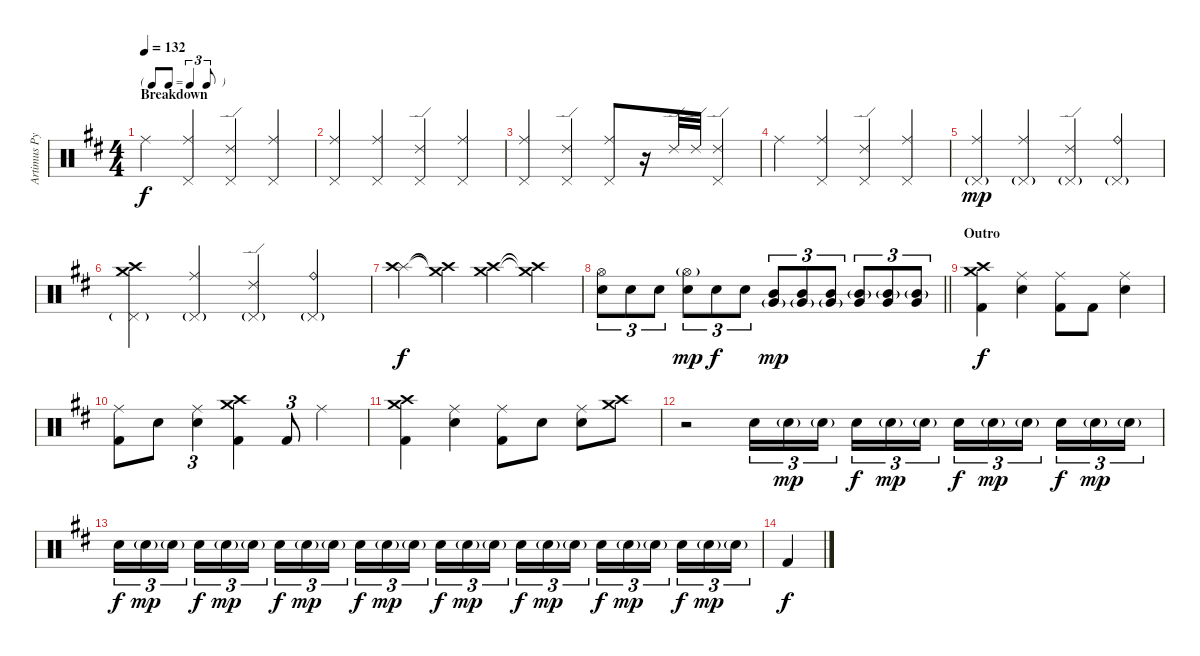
\track ("Artimus Pyle - Drums" "Artimus Py") {solo instrument percussion}
\staff {score}
\articulation defaults
\ts (4 4)
\tf triplet8th
\section ("" "Breakdown")
\tempo 132
\clef neutral
\ks d "Ride (middle)".4{dy f}
("Ride (middle)" "Pedal Hi-Hat (hit)").4 ("Ride (edge) 2" "Pedal Hi-Hat (hit)").4 ("Ride (middle)" "Pedal Hi-Hat (hit)").4 |
("Ride (middle)" "Pedal Hi-Hat (hit)").4 ("Ride (middle)" "Pedal Hi-Hat (hit)").4 ("Ride (edge) 2" "Pedal Hi-Hat (hit)").4 ("Ride (middle)" "Pedal Hi-Hat (hit)").4 |
("Ride (middle)" "Pedal Hi-Hat (hit)").4 ("Ride (edge) 2" "Pedal Hi-Hat (hit)").4 ("Ride (middle)" "Pedal Hi-Hat (hit)").8 r.16 "Ride (edge) 2".32 "Ride (edge) 2".32 ("Ride (edge) 2" "Pedal Hi-Hat (hit)").4 |
"Ride (middle)".4 ("Ride (middle)" "Pedal Hi-Hat (hit)").4 ("Ride (edge) 2" "Pedal Hi-Hat (hit)").4 ("Ride (middle)" "Pedal Hi-Hat (hit)").4 |
("Ride (middle)" "Pedal Hi-Hat (hit)"{g}).4{dy mp} ("Ride (middle)" "Pedal Hi-Hat (hit)"{g}).4 ("Ride (edge) 2" "Pedal Hi-Hat (hit)"{g}).4 ("Ride (bell)" "Pedal Hi-Hat (hit)"{g}).4 |
("Crash high (hit)" "Crash medium (hit)" "Pedal Hi-Hat (hit)"{g}).4 ("Ride (middle)" "Pedal Hi-Hat (hit)"{g}).4 ("Ride (edge) 2" "Pedal Hi-Hat (hit)"{g}).4 ("Ride (bell)" "Pedal Hi-Hat (hit)"{g}).4 |
("Splash (hit)" "Crash high (hit)").4{dy f} ("Crash medium (hit)"{t} "Crash high (hit)"{t}).4 ("Crash medium (hit)" "Crash high (hit)").4 ("Crash medium (hit)"{t} "Crash high (hit)"{t}).4 |
\barLineRight lightlight
("Snare (hit) 2" "Hi-Hat (open)").8{tu (3 2)} "Snare (hit) 2".8{tu (3 2)} "Snare (hit) 2".8{tu (3 2)} ("Snare (hit) 2" "Hi-Hat (open)"{g}).8{tu (3 2) dy mp} "Snare (hit) 2".8{tu (3 2) dy f} "Snare (hit) 2".8{tu (3 2)} ("Very Low Tom (hit)"{g} "Mid Tom (hit)").8{tu (3 2) dy mp} ("Very Low Tom (hit)"{g} "Mid Tom (hit)").8{tu (3 2)} ("Very Low Tom (hit)"{g} "Mid Tom (hit)").8{tu (3 2)} ("Mid Tom (hit)"{g} "Very Low Tom (hit)").8{tu (3 2)} ("Mid Tom (hit)"{g} "Very Low Tom (hit)").8{tu (3 2)} ("Mid Tom (hit)"{g} "Very Low Tom (hit)").8{tu (3 2)} |
\section ("" "Outro")
("Crash medium (hit)" "Crash high (hit)" "Kick (hit) 2").4{dy f} ("Ride (middle)" "Snare (hit) 2").4 ("Ride (middle)" "Kick (hit) 2").8 "Kick (hit) 2".8 ("Ride (middle)" "Snare (hit) 2").4 |
("Ride (middle)" "Kick (hit) 2").8 "Snare (hit) 2".8 ("Ride (middle)" "Snare (hit) 2").4{tu (3 2)} ("Crash high (hit)" "Crash medium (hit)" "Kick (hit) 2").4 "Kick (hit) 2".8{tu (3 2)} "Ride (middle)".4 |
("Crash medium (hit)" "Crash high (hit)" "Kick (hit) 2").4 ("Ride (middle)" "Snare (hit) 2").4 ("Ride (middle)" "Kick (hit) 2").8 "Snare (hit) 2".8 ("Ride (middle)" "Snare (hit) 2").8 ("Crash medium (hit)" "Crash high (hit)").8 |
r.2 "Snare (hit) 2".16{tu (3 2)} "Snare (hit) 2"{g}.16{tu (3 2) dy mp} "Snare (hit) 2"{g}.16{tu (3 2) beam splitsecondary} "Snare (hit) 2".16{tu (3 2) dy f} "Snare (hit) 2"{g}.16{tu (3 2) dy mp} "Snare (hit) 2"{g}.16{tu (3 2)} "Snare (hit) 2".16{tu (3 2) dy f} "Snare (hit) 2"{g}.16{tu (3 2) dy mp} "Snare (hit) 2"{g}.16{tu (3 2) beam splitsecondary} "Snare (hit) 2".16{tu (3 2) dy f} "Snare (hit) 2"{g}.16{tu (3 2) dy mp} "Snare (hit) 2"{g}.16{tu (3 2)} |
"Snare (hit) 2".16{tu (3 2) dy f} "Snare (hit) 2"{g}.16{tu (3 2) dy mp} "Snare (hit) 2"{g}.16{tu (3 2) beam splitsecondary} "Snare (hit) 2".16{tu (3 2) dy f} "Snare (hit) 2"{g}.16{tu (3 2) dy mp} "Snare (hit) 2"{g}.16{tu (3 2)} "Snare (hit) 2".16{tu (3 2) dy f} "Snare (hit) 2"{g}.16{tu (3 2) dy mp} "Snare (hit) 2"{g}.16{tu (3 2) beam splitsecondary} "Snare (hit) 2".16{tu (3 2) dy f} "Snare (hit) 2"{g}.16{tu (3 2) dy mp} "Snare (hit) 2"{g}.16{tu (3 2)} "Snare (hit) 2".16{tu (3 2) dy f} "Snare (hit) 2"{g}.16{tu (3 2) dy mp} "Snare (hit) 2"{g}.16{tu (3 2) beam splitsecondary} "Snare (hit) 2".16{tu (3 2) dy f} "Snare (hit) 2"{g}.16{tu (3 2) dy mp} "Snare (hit) 2"{g}.16{tu (3 2)} "Snare (hit) 2".16{tu (3 2) dy f} "Snare (hit) 2"{g}.16{tu (3 2) dy mp} "Snare (hit) 2"{g}.16{tu (3 2) beam splitsecondary} "Snare (hit) 2".16{tu (3 2) dy f} "Snare (hit) 2"{g}.16{tu (3 2) dy mp} "Snare (hit) 2"{g}.16{tu (3 2)} |
"Kick (hit) 2".4{dy f}
